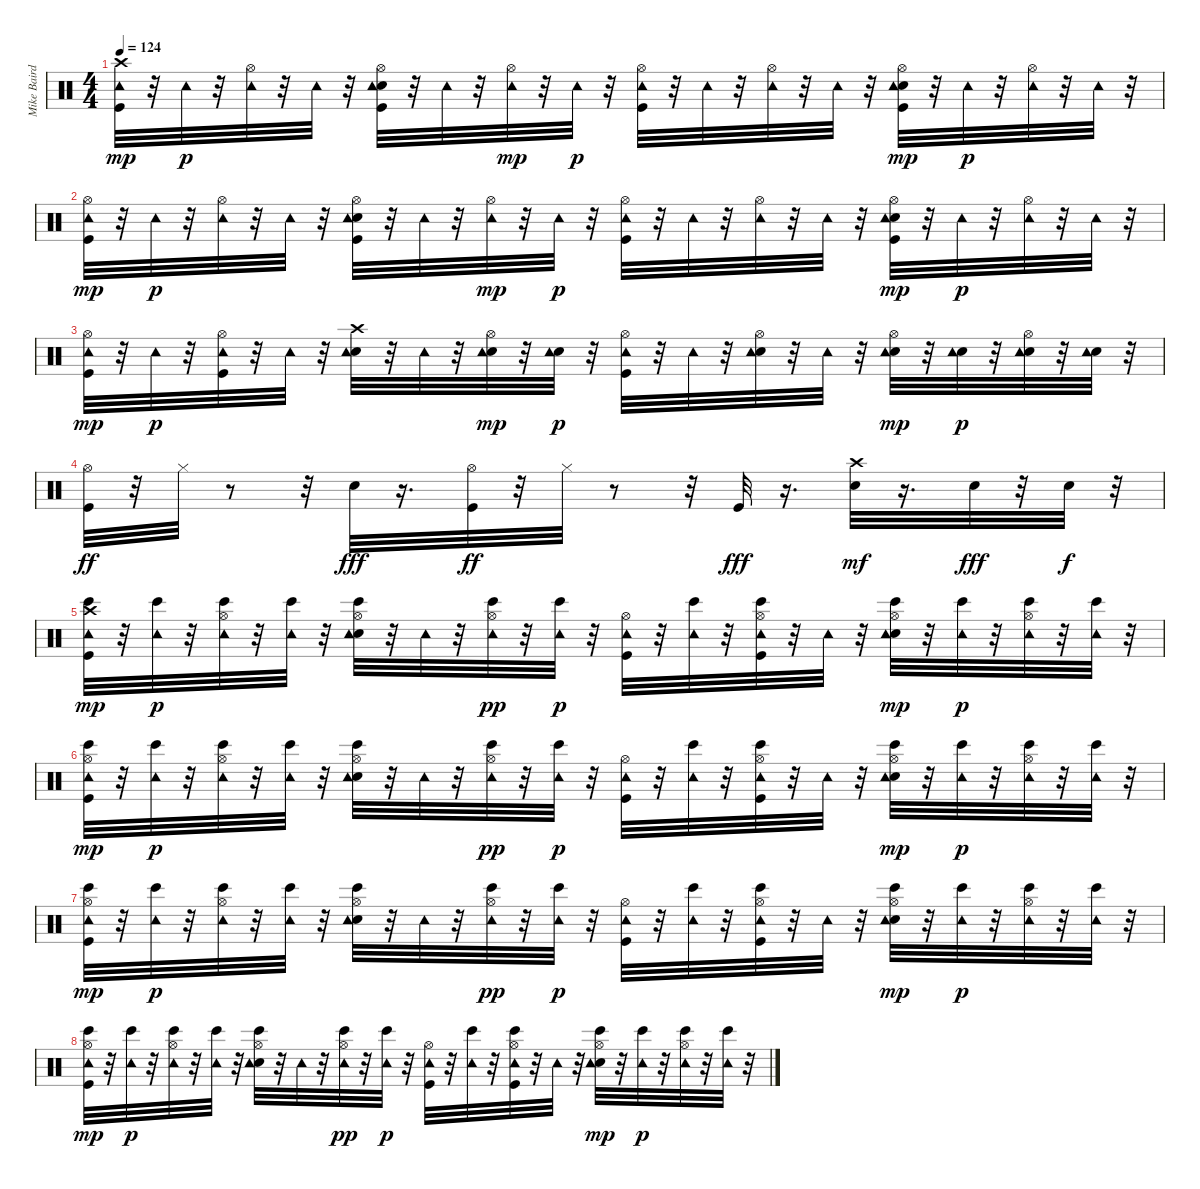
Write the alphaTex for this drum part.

\track ("Mike Baird [drums]" "Mike Baird") {instrument percussion}
\staff {score}
\articulation defaults
\ts (4 4)
\tempo 124
\clef neutral
\ks c
("Kick (hit)" "Crash high (hit)" "Tambourine (hit)").32{dy mp} r.32 "Tambourine (hit)".32{dy p} r.32 ("Hi-Hat (open)" "Tambourine (hit)").32 r.32 "Tambourine (hit)".32 r.32 ("Kick (hit)" "Electric Snare (hit)" "Hi-Hat (open)" "Tambourine (hit)").32 r.32 "Tambourine (hit)".32 r.32 ("Hi-Hat (open)" "Tambourine (hit)").32{dy mp} r.32 "Tambourine (hit)".32{dy p} r.32 ("Kick (hit)" "Hi-Hat (open)" "Tambourine (hit)").32 r.32 "Tambourine (hit)".32 r.32 ("Hi-Hat (open)" "Tambourine (hit)").32 r.32 "Tambourine (hit)".32 r.32 ("Kick (hit)" "Electric Snare (hit)" "Hi-Hat (open)" "Tambourine (hit)").32{dy mp} r.32 "Tambourine (hit)".32{dy p} r.32 ("Hi-Hat (open)" "Tambourine (hit)").32 r.32 "Tambourine (hit)".32 r.32 |
("Kick (hit)" "Hi-Hat (open)" "Tambourine (hit)").32{dy mp} r.32 "Tambourine (hit)".32{dy p} r.32 ("Hi-Hat (open)" "Tambourine (hit)").32 r.32 "Tambourine (hit)".32 r.32 ("Kick (hit)" "Electric Snare (hit)" "Hi-Hat (open)" "Tambourine (hit)").32 r.32 "Tambourine (hit)".32 r.32 ("Hi-Hat (open)" "Tambourine (hit)").32{dy mp} r.32 "Tambourine (hit)".32{dy p} r.32 ("Kick (hit)" "Hi-Hat (open)" "Tambourine (hit)").32 r.32 "Tambourine (hit)".32 r.32 ("Hi-Hat (open)" "Tambourine (hit)").32 r.32 "Tambourine (hit)".32 r.32 ("Kick (hit)" "Electric Snare (hit)" "Hi-Hat (open)" "Tambourine (hit)").32{dy mp} r.32 "Tambourine (hit)".32{dy p} r.32 ("Hi-Hat (open)" "Tambourine (hit)").32 r.32 "Tambourine (hit)".32 r.32 |
("Kick (hit)" "Hi-Hat (open)" "Tambourine (hit)").32{dy mp} r.32 "Tambourine (hit)".32{dy p} r.32 ("Kick (hit)" "Hi-Hat (open)" "Tambourine (hit)").32 r.32 "Tambourine (hit)".32 r.32 ("Electric Snare (hit)" "Crash high (hit)" "Tambourine (hit)").32 r.32 "Tambourine (hit)".32 r.32 ("Electric Snare (hit)" "Hi-Hat (open)" "Tambourine (hit)").32{dy mp} r.32 ("Electric Snare (hit)" "Tambourine (hit)").32{dy p} r.32 ("Kick (hit)" "Hi-Hat (open)" "Tambourine (hit)").32 r.32 "Tambourine (hit)".32 r.32 ("Electric Snare (hit)" "Hi-Hat (open)" "Tambourine (hit)").32 r.32 "Tambourine (hit)".32 r.32 ("Electric Snare (hit)" "Hi-Hat (open)" "Tambourine (hit)").32{dy mp} r.32 ("Electric Snare (hit)" "Tambourine (hit)").32{dy p} r.32 ("Electric Snare (hit)" "Hi-Hat (open)" "Tambourine (hit)").32 r.32 ("Electric Snare (hit)" "Tambourine (hit)").32 r.32 |
("Kick (hit)" "Hi-Hat (open)").32{dy ff} r.32 "Hi-Hat (closed)".32 r.8 r.32 "Electric Snare (hit)".32{dy fff} r.16{d} ("Kick (hit)" "Hi-Hat (open)").32{dy ff} r.32 "Hi-Hat (closed)".32 r.8 r.32 "Kick (hit)".32{dy fff} r.16{d} ("Electric Snare (hit)" "Crash high (hit)").32{dy mf} r.16{d} "Electric Snare (hit)".32{dy fff} r.32 "Electric Snare (hit)".32{dy f} r.32 |
("Bongo High (hit)" "Kick (hit)" "Crash high (hit)" "Tambourine (hit)").32{dy mp} r.32 ("Tambourine (hit)" "Bongo High (hit)").32{dy p} r.32 ("Hi-Hat (open)" "Tambourine (hit)" "Bongo High (hit)").32 r.32 ("Tambourine (hit)" "Bongo High (hit)").32 r.32 ("Electric Snare (hit)" "Hi-Hat (open)" "Bongo High (hit)" "Tambourine (hit)").32 r.32 "Tambourine (hit)".32 r.32 ("Hi-Hat (open)" "Tambourine (hit)" "Bongo High (hit)").32{dy pp} r.32 ("Bongo High (hit)" "Tambourine (hit)").32{dy p} r.32 ("Kick (hit)" "Hi-Hat (open)" "Tambourine (hit)").32 r.32 ("Bongo High (hit)" "Tambourine (hit)").32 r.32 ("Bongo High (hit)" "Kick (hit)" "Hi-Hat (open)" "Tambourine (hit)").32 r.32 "Tambourine (hit)".32 r.32 ("Bongo High (hit)" "Electric Snare (hit)" "Hi-Hat (open)" "Tambourine (hit)").32{dy mp} r.32 ("Tambourine (hit)" "Bongo High (hit)").32{dy p} r.32 ("Bongo High (hit)" "Hi-Hat (open)" "Tambourine (hit)").32 r.32 ("Tambourine (hit)" "Bongo High (hit)").32 r.32 |
("Bongo High (hit)" "Kick (hit)" "Hi-Hat (open)" "Tambourine (hit)").32{dy mp} r.32 ("Tambourine (hit)" "Bongo High (hit)").32{dy p} r.32 ("Hi-Hat (open)" "Tambourine (hit)" "Bongo High (hit)").32 r.32 ("Tambourine (hit)" "Bongo High (hit)").32 r.32 ("Electric Snare (hit)" "Hi-Hat (open)" "Bongo High (hit)" "Tambourine (hit)").32 r.32 "Tambourine (hit)".32 r.32 ("Hi-Hat (open)" "Tambourine (hit)" "Bongo High (hit)").32{dy pp} r.32 ("Bongo High (hit)" "Tambourine (hit)").32{dy p} r.32 ("Kick (hit)" "Hi-Hat (open)" "Tambourine (hit)").32 r.32 ("Bongo High (hit)" "Tambourine (hit)").32 r.32 ("Bongo High (hit)" "Kick (hit)" "Hi-Hat (open)" "Tambourine (hit)").32 r.32 "Tambourine (hit)".32 r.32 ("Bongo High (hit)" "Electric Snare (hit)" "Hi-Hat (open)" "Tambourine (hit)").32{dy mp} r.32 ("Tambourine (hit)" "Bongo High (hit)").32{dy p} r.32 ("Bongo High (hit)" "Hi-Hat (open)" "Tambourine (hit)").32 r.32 ("Tambourine (hit)" "Bongo High (hit)").32 r.32 |
("Bongo High (hit)" "Kick (hit)" "Hi-Hat (open)" "Tambourine (hit)").32{dy mp} r.32 ("Tambourine (hit)" "Bongo High (hit)").32{dy p} r.32 ("Hi-Hat (open)" "Tambourine (hit)" "Bongo High (hit)").32 r.32 ("Tambourine (hit)" "Bongo High (hit)").32 r.32 ("Electric Snare (hit)" "Hi-Hat (open)" "Bongo High (hit)" "Tambourine (hit)").32 r.32 "Tambourine (hit)".32 r.32 ("Hi-Hat (open)" "Tambourine (hit)" "Bongo High (hit)").32{dy pp} r.32 ("Bongo High (hit)" "Tambourine (hit)").32{dy p} r.32 ("Kick (hit)" "Hi-Hat (open)" "Tambourine (hit)").32 r.32 ("Bongo High (hit)" "Tambourine (hit)").32 r.32 ("Bongo High (hit)" "Kick (hit)" "Hi-Hat (open)" "Tambourine (hit)").32 r.32 "Tambourine (hit)".32 r.32 ("Bongo High (hit)" "Electric Snare (hit)" "Hi-Hat (open)" "Tambourine (hit)").32{dy mp} r.32 ("Tambourine (hit)" "Bongo High (hit)").32{dy p} r.32 ("Bongo High (hit)" "Hi-Hat (open)" "Tambourine (hit)").32 r.32 ("Tambourine (hit)" "Bongo High (hit)").32 r.32 |
("Bongo High (hit)" "Kick (hit)" "Hi-Hat (open)" "Tambourine (hit)").32{dy mp} r.32 ("Tambourine (hit)" "Bongo High (hit)").32{dy p} r.32 ("Hi-Hat (open)" "Tambourine (hit)" "Bongo High (hit)").32 r.32 ("Tambourine (hit)" "Bongo High (hit)").32 r.32 ("Electric Snare (hit)" "Hi-Hat (open)" "Bongo High (hit)" "Tambourine (hit)").32 r.32 "Tambourine (hit)".32 r.32 ("Hi-Hat (open)" "Tambourine (hit)" "Bongo High (hit)").32{dy pp} r.32 ("Bongo High (hit)" "Tambourine (hit)").32{dy p} r.32 ("Kick (hit)" "Hi-Hat (open)" "Tambourine (hit)").32 r.32 ("Bongo High (hit)" "Tambourine (hit)").32 r.32 ("Bongo High (hit)" "Kick (hit)" "Hi-Hat (open)" "Tambourine (hit)").32 r.32 "Tambourine (hit)".32 r.32 ("Bongo High (hit)" "Electric Snare (hit)" "Hi-Hat (open)" "Tambourine (hit)").32{dy mp} r.32 ("Tambourine (hit)" "Bongo High (hit)").32{dy p} r.32 ("Bongo High (hit)" "Hi-Hat (open)" "Tambourine (hit)").32 r.32 ("Tambourine (hit)" "Bongo High (hit)").32 r.32
